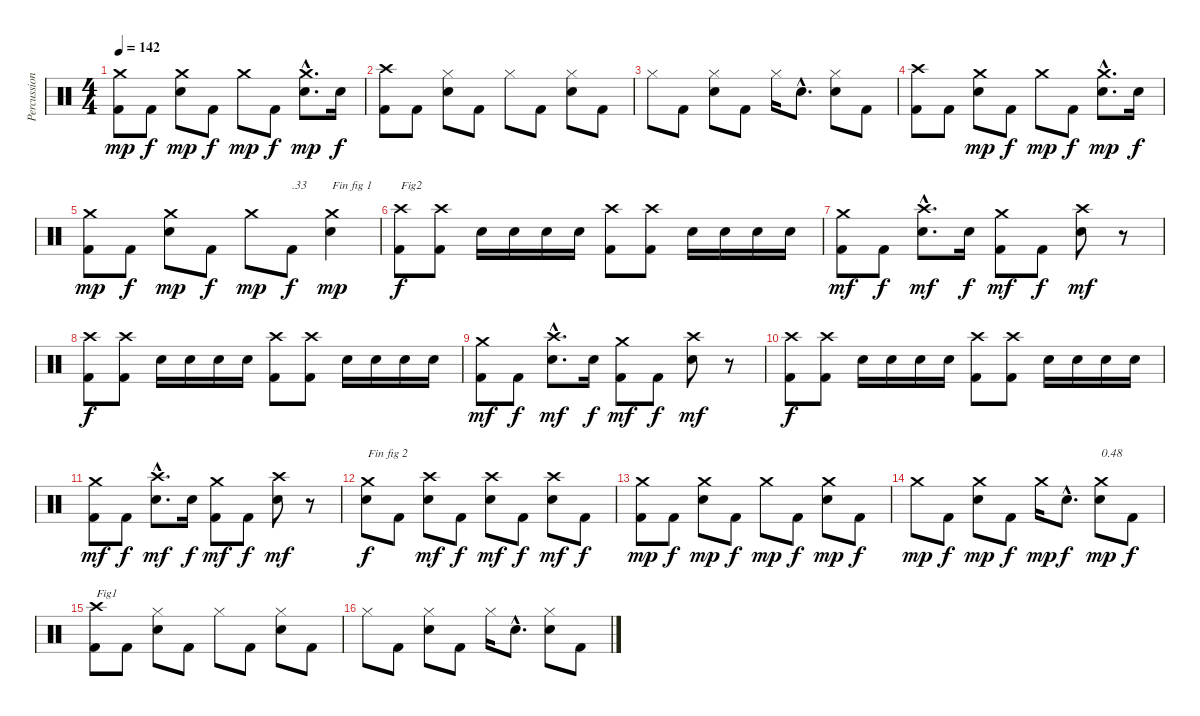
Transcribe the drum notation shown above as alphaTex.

\track ("Percussions" "Percussion") {instrument percussion}
\staff {score}
\articulation defaults
\ts (4 4)
\tempo 142
\clef neutral
\ks c
("Kick (hit) 2" "Crash medium (hit)").8{dy mp} "Kick (hit) 2".8{dy f} ("Electric Snare (hit)" "Crash medium (hit)").8{dy mp} "Kick (hit) 2".8{dy f} "Crash medium (hit)".8{dy mp} "Kick (hit) 2".8{dy f} ("Electric Snare (hit)"{hac} "Crash medium (hit)"{hac}).8{d dy mp} "Electric Snare (hit)".16{dy f} |
("Kick (hit) 2" "Crash high (hit)").8 "Kick (hit) 2".8 ("Electric Snare (hit)" "Hi-Hat (closed)").8 "Kick (hit) 2".8 "Hi-Hat (closed)".8 "Kick (hit) 2".8 ("Electric Snare (hit)" "Hi-Hat (closed)").8 "Kick (hit) 2".8 |
"Hi-Hat (closed)".8 "Kick (hit) 2".8 ("Electric Snare (hit)" "Hi-Hat (closed)").8 "Kick (hit) 2".8 "Hi-Hat (closed)".16 "Electric Snare (hit)"{hac}.8{d} ("Electric Snare (hit)" "Hi-Hat (closed)").8 "Kick (hit) 2".8 |
("Kick (hit) 2" "Crash high (hit)").8 "Kick (hit) 2".8 ("Electric Snare (hit)" "Crash medium (hit)").8{dy mp} "Kick (hit) 2".8{dy f} "Crash medium (hit)".8{dy mp} "Kick (hit) 2".8{dy f} ("Electric Snare (hit)"{hac} "Crash medium (hit)"{hac}).8{d dy mp} "Electric Snare (hit)".16{dy f} |
("Kick (hit) 2" "Crash medium (hit)").8{dy mp} "Kick (hit) 2".8{dy f} ("Electric Snare (hit)" "Crash medium (hit)").8{dy mp} "Kick (hit) 2".8{dy f} "Crash medium (hit)".8{dy mp} "Kick (hit) 2".8{txt ".33" dy f} ("Electric Snare (hit)" "Crash medium (hit)").4{txt "Fin fig 1" dy mp} |
("Kick (hit) 2" "Crash high (hit)").8{txt "Fig2" dy f} ("Kick (hit) 2" "Crash high (hit)").8 "Electric Snare (hit)".16 "Electric Snare (hit)".16 "Electric Snare (hit)".16 "Electric Snare (hit)".16 ("Kick (hit) 2" "Crash high (hit)").8 ("Kick (hit) 2" "Crash high (hit)").8 "Electric Snare (hit)".16 "Electric Snare (hit)".16 "Electric Snare (hit)".16 "Electric Snare (hit)".16 |
("Kick (hit) 2" "Crash medium (hit)").8{dy mf} "Kick (hit) 2".8{dy f} ("Electric Snare (hit)"{hac} "Crash high (hit)"{hac}).8{d dy mf} "Electric Snare (hit)".16{dy f} ("Kick (hit) 2" "Crash medium (hit)").8{dy mf} "Kick (hit) 2".8{dy f} ("Electric Snare (hit)" "Crash high (hit)").8{dy mf} r.8 |
("Kick (hit) 2" "Crash high (hit)").8{dy f} ("Kick (hit) 2" "Crash high (hit)").8 "Electric Snare (hit)".16 "Electric Snare (hit)".16 "Electric Snare (hit)".16 "Electric Snare (hit)".16 ("Kick (hit) 2" "Crash high (hit)").8 ("Kick (hit) 2" "Crash high (hit)").8 "Electric Snare (hit)".16 "Electric Snare (hit)".16 "Electric Snare (hit)".16 "Electric Snare (hit)".16 |
("Kick (hit) 2" "Crash medium (hit)").8{dy mf} "Kick (hit) 2".8{dy f} ("Electric Snare (hit)"{hac} "Crash high (hit)"{hac}).8{d dy mf} "Electric Snare (hit)".16{dy f} ("Kick (hit) 2" "Crash medium (hit)").8{dy mf} "Kick (hit) 2".8{dy f} ("Electric Snare (hit)" "Crash high (hit)").8{dy mf} r.8 |
("Kick (hit) 2" "Crash high (hit)").8{dy f} ("Kick (hit) 2" "Crash high (hit)").8 "Electric Snare (hit)".16 "Electric Snare (hit)".16 "Electric Snare (hit)".16 "Electric Snare (hit)".16 ("Kick (hit) 2" "Crash high (hit)").8 ("Kick (hit) 2" "Crash high (hit)").8 "Electric Snare (hit)".16 "Electric Snare (hit)".16 "Electric Snare (hit)".16 "Electric Snare (hit)".16 |
("Kick (hit) 2" "Crash medium (hit)").8{dy mf} "Kick (hit) 2".8{dy f} ("Electric Snare (hit)"{hac} "Crash high (hit)"{hac}).8{d dy mf} "Electric Snare (hit)".16{dy f} ("Kick (hit) 2" "Crash medium (hit)").8{dy mf} "Kick (hit) 2".8{dy f} ("Electric Snare (hit)" "Crash high (hit)").8{dy mf} r.8 |
("Electric Snare (hit)" "Crash medium (hit)").8{txt "Fin fig 2" dy f} "Kick (hit) 2".8 ("Electric Snare (hit)" "Crash high (hit)").8{dy mf} "Kick (hit) 2".8{dy f} ("Electric Snare (hit)" "Crash high (hit)").8{dy mf} "Kick (hit) 2".8{dy f} ("Electric Snare (hit)" "Crash high (hit)").8{dy mf} "Kick (hit) 2".8{dy f} |
("Kick (hit) 2" "Crash medium (hit)").8{dy mp} "Kick (hit) 2".8{dy f} ("Electric Snare (hit)" "Crash medium (hit)").8{dy mp} "Kick (hit) 2".8{dy f} "Crash medium (hit)".8{dy mp} "Kick (hit) 2".8{dy f} ("Electric Snare (hit)" "Crash medium (hit)").8{dy mp} "Kick (hit) 2".8{dy f} |
"Crash medium (hit)".8{dy mp} "Kick (hit) 2".8{dy f} ("Electric Snare (hit)" "Crash medium (hit)").8{dy mp} "Kick (hit) 2".8{dy f} "Crash medium (hit)".16{dy mp} "Electric Snare (hit)"{hac}.8{d dy f} ("Electric Snare (hit)" "Crash medium (hit)").8{txt "0.48" dy mp} "Kick (hit) 2".8{dy f} |
("Kick (hit) 2" "Crash high (hit)").8{txt "Fig1"} "Kick (hit) 2".8 ("Electric Snare (hit)" "Hi-Hat (closed)").8 "Kick (hit) 2".8 "Hi-Hat (closed)".8 "Kick (hit) 2".8 ("Electric Snare (hit)" "Hi-Hat (closed)").8 "Kick (hit) 2".8 |
"Hi-Hat (closed)".8 "Kick (hit) 2".8 ("Electric Snare (hit)" "Hi-Hat (closed)").8 "Kick (hit) 2".8 "Hi-Hat (closed)".16 "Electric Snare (hit)"{hac}.8{d} ("Electric Snare (hit)" "Hi-Hat (closed)").8 "Kick (hit) 2".8
